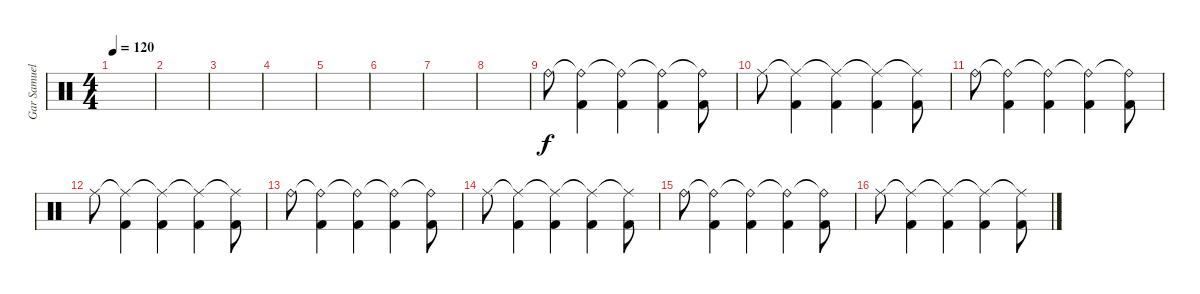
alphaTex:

\track ("Gar Samuelson" "Gar Samuel") {instrument percussion}
\staff {score}
\articulation defaults
\ts (4 4)
\tempo 120
\clef neutral
\ks c
|
|
|
|
|
|
|
|
"Ride (bell)".8 ("Ride (bell)"{t} "Kick (hit) 2").4 ("Ride (bell)"{t} "Kick (hit) 2").4 ("Ride (bell)"{t} "Kick (hit) 2").4 ("Ride (bell)"{t} "Kick (hit) 2").8 |
"Ride (middle)".8 ("Ride (middle)"{t} "Kick (hit) 2").4 ("Ride (middle)"{t} "Kick (hit) 2").4 ("Ride (middle)"{t} "Kick (hit) 2").4 ("Ride (middle)"{t} "Kick (hit) 2").8 |
"Ride (bell)".8 ("Ride (bell)"{t} "Kick (hit) 2").4 ("Ride (bell)"{t} "Kick (hit) 2").4 ("Ride (bell)"{t} "Kick (hit) 2").4 ("Ride (bell)"{t} "Kick (hit) 2").8 |
"Ride (middle)".8 ("Ride (middle)"{t} "Kick (hit) 2").4 ("Ride (middle)"{t} "Kick (hit) 2").4 ("Ride (middle)"{t} "Kick (hit) 2").4 ("Ride (middle)"{t} "Kick (hit) 2").8 |
"Ride (bell)".8 ("Ride (bell)"{t} "Kick (hit) 2").4 ("Ride (bell)"{t} "Kick (hit) 2").4 ("Ride (bell)"{t} "Kick (hit) 2").4 ("Ride (bell)"{t} "Kick (hit) 2").8 |
"Ride (middle)".8 ("Ride (middle)"{t} "Kick (hit) 2").4 ("Ride (middle)"{t} "Kick (hit) 2").4 ("Ride (middle)"{t} "Kick (hit) 2").4 ("Ride (middle)"{t} "Kick (hit) 2").8 |
"Ride (bell)".8 ("Ride (bell)"{t} "Kick (hit) 2").4 ("Ride (bell)"{t} "Kick (hit) 2").4 ("Ride (bell)"{t} "Kick (hit) 2").4 ("Ride (bell)"{t} "Kick (hit) 2").8 |
"Ride (middle)".8 ("Ride (middle)"{t} "Kick (hit) 2").4 ("Ride (middle)"{t} "Kick (hit) 2").4 ("Ride (middle)"{t} "Kick (hit) 2").4 ("Ride (middle)"{t} "Kick (hit) 2").8
